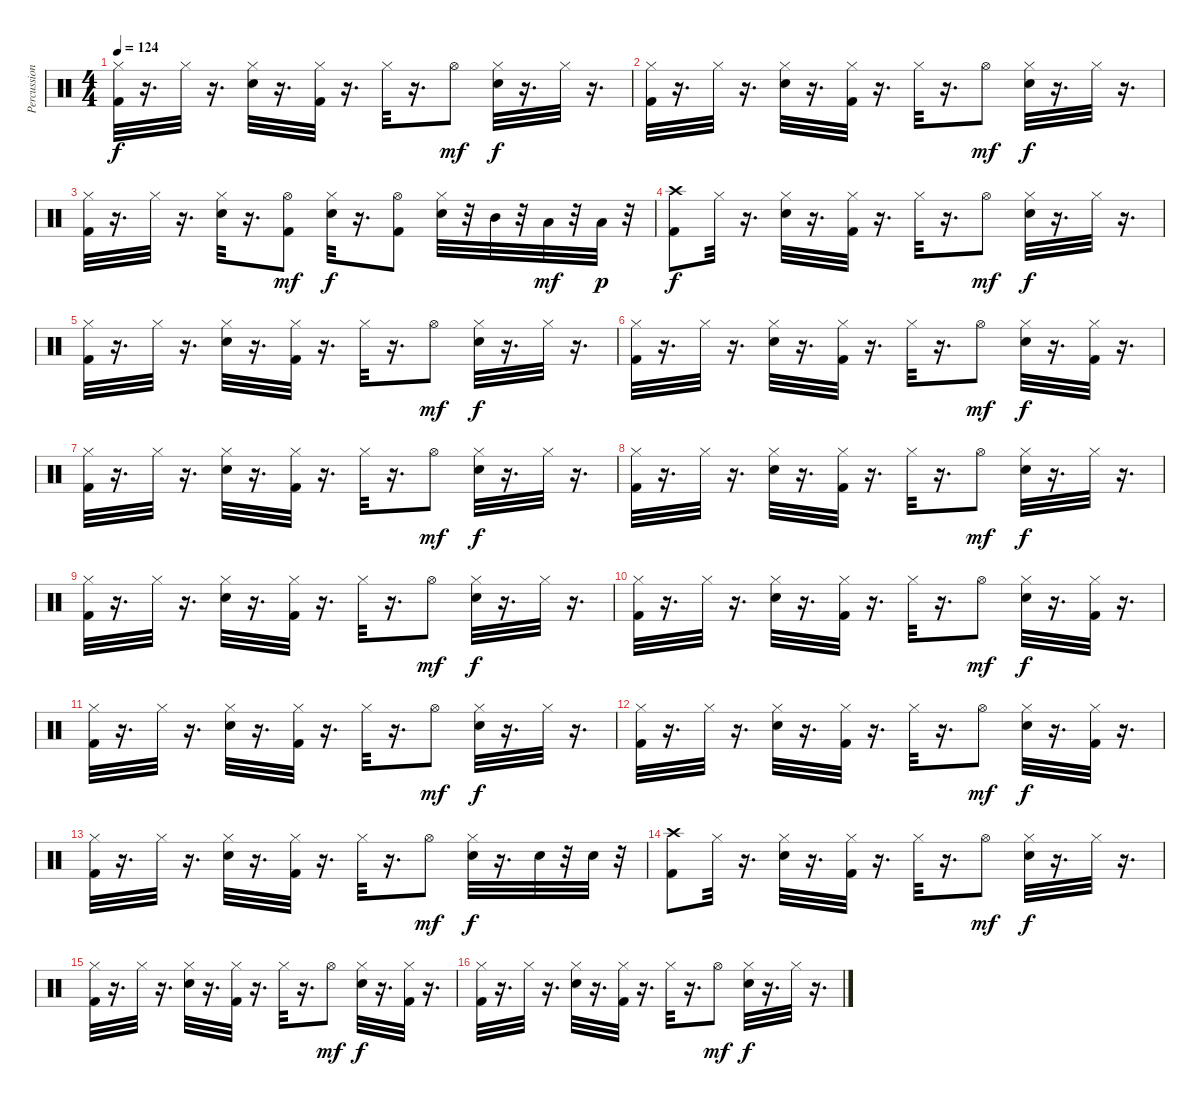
\track ("Percussions" "Percussion") {instrument percussion}
\staff {score}
\articulation defaults
\ts (4 4)
\tempo 124
\clef neutral
\ks c
("Kick (hit) 2" "Hi-Hat (closed)").32{dy f} r.16{d} "Hi-Hat (closed)".32 r.16{d} ("Snare (hit) 2" "Hi-Hat (closed)").32 r.16{d} ("Kick (hit) 2" "Hi-Hat (closed)").32 r.16{d} "Hi-Hat (closed)".32 r.16{d} "Hi-Hat (open)".8{dy mf} ("Snare (hit) 2" "Hi-Hat (closed)").32{dy f} r.16{d} "Hi-Hat (closed)".32 r.16{d} |
("Kick (hit) 2" "Hi-Hat (closed)").32 r.16{d} "Hi-Hat (closed)".32 r.16{d} ("Snare (hit) 2" "Hi-Hat (closed)").32 r.16{d} ("Kick (hit) 2" "Hi-Hat (closed)").32 r.16{d} "Hi-Hat (closed)".32 r.16{d} "Hi-Hat (open)".8{dy mf} ("Snare (hit) 2" "Hi-Hat (closed)").32{dy f} r.16{d} "Hi-Hat (closed)".32 r.16{d} |
("Kick (hit) 2" "Hi-Hat (closed)").32 r.16{d} "Hi-Hat (closed)".32 r.16{d} ("Snare (hit) 2" "Hi-Hat (closed)").32 r.16{d} ("Kick (hit) 2" "Hi-Hat (open)").8{dy mf} ("Snare (hit) 2" "Hi-Hat (closed)").32{dy f} r.16{d} ("Kick (hit) 2" "Hi-Hat (open)").8 ("Snare (hit) 2" "Hi-Hat (closed)").32 r.32 "Mid Tom (hit)".32 r.32 "Low Tom (hit)".32{dy mf} r.32 "Low Tom (hit)".32{dy p} r.32 |
("Kick (hit) 2" "Crash high (hit)").8{dy f} "Hi-Hat (closed)".32 r.16{d} ("Snare (hit) 2" "Hi-Hat (closed)").32 r.16{d} ("Kick (hit) 2" "Hi-Hat (closed)").32 r.16{d} "Hi-Hat (closed)".32 r.16{d} "Hi-Hat (open)".8{dy mf} ("Snare (hit) 2" "Hi-Hat (closed)").32{dy f} r.16{d} "Hi-Hat (closed)".32 r.16{d} |
("Kick (hit) 2" "Hi-Hat (closed)").32 r.16{d} "Hi-Hat (closed)".32 r.16{d} ("Snare (hit) 2" "Hi-Hat (closed)").32 r.16{d} ("Kick (hit) 2" "Hi-Hat (closed)").32 r.16{d} "Hi-Hat (closed)".32 r.16{d} "Hi-Hat (open)".8{dy mf} ("Snare (hit) 2" "Hi-Hat (closed)").32{dy f} r.16{d} "Hi-Hat (closed)".32 r.16{d} |
("Kick (hit) 2" "Hi-Hat (closed)").32 r.16{d} "Hi-Hat (closed)".32 r.16{d} ("Snare (hit) 2" "Hi-Hat (closed)").32 r.16{d} ("Kick (hit) 2" "Hi-Hat (closed)").32 r.16{d} "Hi-Hat (closed)".32 r.16{d} "Hi-Hat (open)".8{dy mf} ("Snare (hit) 2" "Hi-Hat (closed)").32{dy f} r.16{d} ("Kick (hit) 2" "Hi-Hat (closed)").32 r.16{d} |
("Kick (hit) 2" "Hi-Hat (closed)").32 r.16{d} "Hi-Hat (closed)".32 r.16{d} ("Snare (hit) 2" "Hi-Hat (closed)").32 r.16{d} ("Kick (hit) 2" "Hi-Hat (closed)").32 r.16{d} "Hi-Hat (closed)".32 r.16{d} "Hi-Hat (open)".8{dy mf} ("Snare (hit) 2" "Hi-Hat (closed)").32{dy f} r.16{d} "Hi-Hat (closed)".32 r.16{d} |
("Kick (hit) 2" "Hi-Hat (closed)").32 r.16{d} "Hi-Hat (closed)".32 r.16{d} ("Snare (hit) 2" "Hi-Hat (closed)").32 r.16{d} ("Kick (hit) 2" "Hi-Hat (closed)").32 r.16{d} "Hi-Hat (closed)".32 r.16{d} "Hi-Hat (open)".8{dy mf} ("Snare (hit) 2" "Hi-Hat (closed)").32{dy f} r.16{d} "Hi-Hat (closed)".32 r.16{d} |
("Kick (hit) 2" "Hi-Hat (closed)").32 r.16{d} "Hi-Hat (closed)".32 r.16{d} ("Snare (hit) 2" "Hi-Hat (closed)").32 r.16{d} ("Kick (hit) 2" "Hi-Hat (closed)").32 r.16{d} "Hi-Hat (closed)".32 r.16{d} "Hi-Hat (open)".8{dy mf} ("Snare (hit) 2" "Hi-Hat (closed)").32{dy f} r.16{d} "Hi-Hat (closed)".32 r.16{d} |
("Kick (hit) 2" "Hi-Hat (closed)").32 r.16{d} "Hi-Hat (closed)".32 r.16{d} ("Snare (hit) 2" "Hi-Hat (closed)").32 r.16{d} ("Kick (hit) 2" "Hi-Hat (closed)").32 r.16{d} "Hi-Hat (closed)".32 r.16{d} "Hi-Hat (open)".8{dy mf} ("Snare (hit) 2" "Hi-Hat (closed)").32{dy f} r.16{d} ("Kick (hit) 2" "Hi-Hat (closed)").32 r.16{d} |
("Kick (hit) 2" "Hi-Hat (closed)").32 r.16{d} "Hi-Hat (closed)".32 r.16{d} ("Snare (hit) 2" "Hi-Hat (closed)").32 r.16{d} ("Kick (hit) 2" "Hi-Hat (closed)").32 r.16{d} "Hi-Hat (closed)".32 r.16{d} "Hi-Hat (open)".8{dy mf} ("Snare (hit) 2" "Hi-Hat (closed)").32{dy f} r.16{d} "Hi-Hat (closed)".32 r.16{d} |
("Kick (hit) 2" "Hi-Hat (closed)").32 r.16{d} "Hi-Hat (closed)".32 r.16{d} ("Snare (hit) 2" "Hi-Hat (closed)").32 r.16{d} ("Kick (hit) 2" "Hi-Hat (closed)").32 r.16{d} "Hi-Hat (closed)".32 r.16{d} "Hi-Hat (open)".8{dy mf} ("Snare (hit) 2" "Hi-Hat (closed)").32{dy f} r.16{d} ("Kick (hit) 2" "Hi-Hat (closed)").32 r.16{d} |
("Kick (hit) 2" "Hi-Hat (closed)").32 r.16{d} "Hi-Hat (closed)".32 r.16{d} ("Snare (hit) 2" "Hi-Hat (closed)").32 r.16{d} ("Kick (hit) 2" "Hi-Hat (closed)").32 r.16{d} "Hi-Hat (closed)".32 r.16{d} "Hi-Hat (open)".8{dy mf} ("Snare (hit) 2" "Hi-Hat (closed)").32{dy f} r.16{d} "Snare (hit) 2".32 r.32 "Snare (hit) 2".32 r.32 |
("Kick (hit) 2" "Crash high (hit)").8 "Hi-Hat (closed)".32 r.16{d} ("Snare (hit) 2" "Hi-Hat (closed)").32 r.16{d} ("Kick (hit) 2" "Hi-Hat (closed)").32 r.16{d} "Hi-Hat (closed)".32 r.16{d} "Hi-Hat (open)".8{dy mf} ("Snare (hit) 2" "Hi-Hat (closed)").32{dy f} r.16{d} "Hi-Hat (closed)".32 r.16{d} |
("Kick (hit) 2" "Hi-Hat (closed)").32 r.16{d} "Hi-Hat (closed)".32 r.16{d} ("Snare (hit) 2" "Hi-Hat (closed)").32 r.16{d} ("Kick (hit) 2" "Hi-Hat (closed)").32 r.16{d} "Hi-Hat (closed)".32 r.16{d} "Hi-Hat (open)".8{dy mf} ("Snare (hit) 2" "Hi-Hat (closed)").32{dy f} r.16{d} ("Kick (hit) 2" "Hi-Hat (closed)").32 r.16{d} |
("Kick (hit) 2" "Hi-Hat (closed)").32 r.16{d} "Hi-Hat (closed)".32 r.16{d} ("Snare (hit) 2" "Hi-Hat (closed)").32 r.16{d} ("Kick (hit) 2" "Hi-Hat (closed)").32 r.16{d} "Hi-Hat (closed)".32 r.16{d} "Hi-Hat (open)".8{dy mf} ("Snare (hit) 2" "Hi-Hat (closed)").32{dy f} r.16{d} "Hi-Hat (closed)".32 r.16{d}
